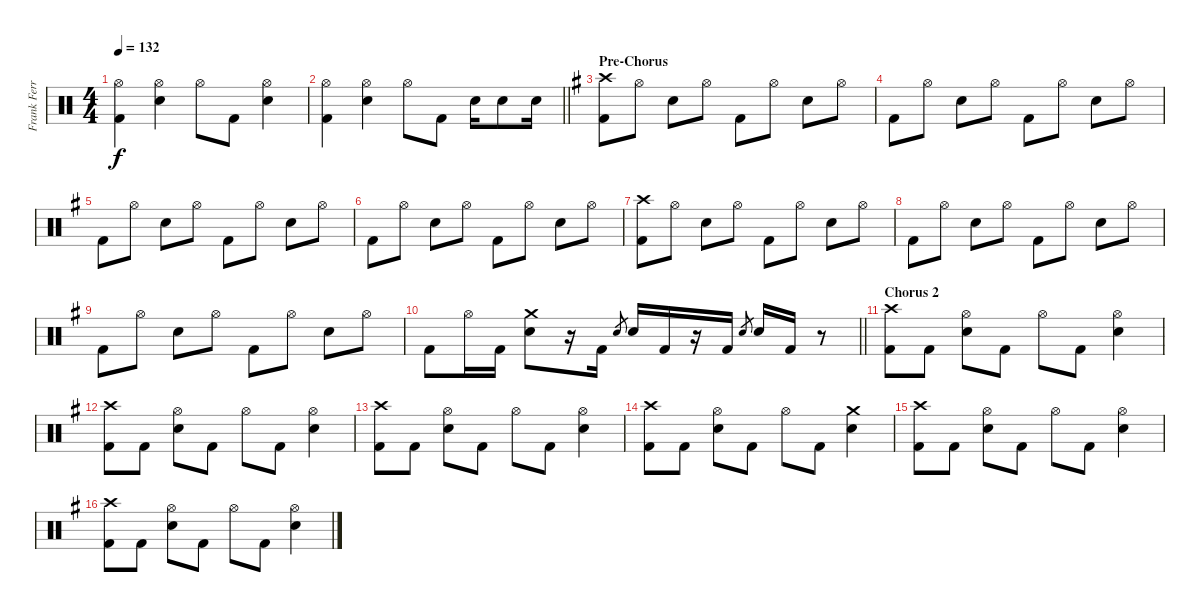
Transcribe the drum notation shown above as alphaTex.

\track ("Frank Ferrer" "Frank Ferr") {instrument percussion}
\staff {score}
\articulation defaults
\ts (4 4)
\tempo 132
\clef neutral
\ks c
("Hi-Hat (open)" "Kick (hit) 2").4{dy f} ("Hi-Hat (open)" "Electric Snare (hit)").4 "Hi-Hat (open)".8 "Kick (hit) 2".8 ("Hi-Hat (open)" "Electric Snare (hit)").4 |
\barLineRight lightlight
("Hi-Hat (open)" "Kick (hit) 2").4 ("Hi-Hat (open)" "Electric Snare (hit)").4 "Hi-Hat (open)".8 "Kick (hit) 2".8 "Electric Snare (hit)".16 "Electric Snare (hit)".8 "Electric Snare (hit)".16 |
\section ("" "Pre-Chorus")
\ks g
("Crash high (hit)" "Kick (hit) 2").8 "Hi-Hat (open)".8 "Electric Snare (hit)".8 "Hi-Hat (open)".8 "Kick (hit) 2".8 "Hi-Hat (open)".8 "Electric Snare (hit)".8 "Hi-Hat (open)".8 |
"Kick (hit) 2".8 "Hi-Hat (open)".8 "Electric Snare (hit)".8 "Hi-Hat (open)".8 "Kick (hit) 2".8 "Hi-Hat (open)".8 "Electric Snare (hit)".8 "Hi-Hat (open)".8 |
"Kick (hit) 2".8 "Hi-Hat (open)".8 "Electric Snare (hit)".8 "Hi-Hat (open)".8 "Kick (hit) 2".8 "Hi-Hat (open)".8 "Electric Snare (hit)".8 "Hi-Hat (open)".8 |
"Kick (hit) 2".8 "Hi-Hat (open)".8 "Electric Snare (hit)".8 "Hi-Hat (open)".8 "Kick (hit) 2".8 "Hi-Hat (open)".8 "Electric Snare (hit)".8 "Hi-Hat (open)".8 |
("Crash high (hit)" "Kick (hit) 2").8 "Hi-Hat (open)".8 "Electric Snare (hit)".8 "Hi-Hat (open)".8 "Kick (hit) 2".8 "Hi-Hat (open)".8 "Electric Snare (hit)".8 "Hi-Hat (open)".8 |
"Kick (hit) 2".8 "Hi-Hat (open)".8 "Electric Snare (hit)".8 "Hi-Hat (open)".8 "Kick (hit) 2".8 "Hi-Hat (open)".8 "Electric Snare (hit)".8 "Hi-Hat (open)".8 |
"Kick (hit) 2".8 "Hi-Hat (open)".8 "Electric Snare (hit)".8 "Hi-Hat (open)".8 "Kick (hit) 2".8 "Hi-Hat (open)".8 "Electric Snare (hit)".8 "Hi-Hat (open)".8 |
\barLineRight lightlight "Kick (hit) 2".8 "Hi-Hat (open)".16 "Kick (hit) 2".16
("Crash medium (hit)" "Electric Snare (hit)").8 r.16 "Kick (hit) 2".16 "Electric Snare (hit)".8{gr} "Electric Snare (hit)".16 "Kick (hit) 2".16 r.16 "Kick (hit) 2".16 "Electric Snare (hit)".8{gr} "Electric Snare (hit)".16 "Kick (hit) 2".16 r.8 |
\section ("" "Chorus 2")
("Crash high (hit)" "Kick (hit) 2").8 "Kick (hit) 2".8 ("Hi-Hat (open)" "Electric Snare (hit)").8 "Kick (hit) 2".8 "Hi-Hat (open)".8 "Kick (hit) 2".8 ("Hi-Hat (open)" "Electric Snare (hit)").4 |
("Crash high (hit)" "Kick (hit) 2").8 "Kick (hit) 2".8 ("Hi-Hat (open)" "Electric Snare (hit)").8 "Kick (hit) 2".8 "Hi-Hat (open)".8 "Kick (hit) 2".8 ("Hi-Hat (open)" "Electric Snare (hit)").4 |
("Crash high (hit)" "Kick (hit) 2").8 "Kick (hit) 2".8 ("Hi-Hat (open)" "Electric Snare (hit)").8 "Kick (hit) 2".8 "Hi-Hat (open)".8 "Kick (hit) 2".8 ("Hi-Hat (open)" "Electric Snare (hit)").4 |
("Crash high (hit)" "Kick (hit) 2").8 "Kick (hit) 2".8 ("Hi-Hat (open)" "Electric Snare (hit)").8 "Kick (hit) 2".8 "Hi-Hat (open)".8 "Kick (hit) 2".8 ("Crash medium (hit)" "Electric Snare (hit)").4 |
("Crash high (hit)" "Kick (hit) 2").8 "Kick (hit) 2".8 ("Hi-Hat (open)" "Electric Snare (hit)").8 "Kick (hit) 2".8 "Hi-Hat (open)".8 "Kick (hit) 2".8 ("Hi-Hat (open)" "Electric Snare (hit)").4 |
("Crash high (hit)" "Kick (hit) 2").8 "Kick (hit) 2".8 ("Hi-Hat (open)" "Electric Snare (hit)").8 "Kick (hit) 2".8 "Hi-Hat (open)".8 "Kick (hit) 2".8 ("Hi-Hat (open)" "Electric Snare (hit)").4
